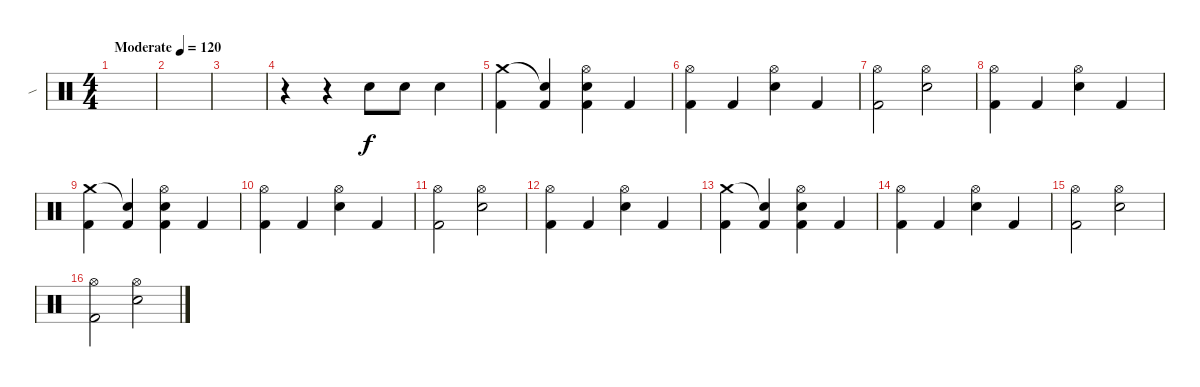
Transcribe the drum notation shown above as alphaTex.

\track ("\\" "\\") {instrument percussion}
\staff {score}
\articulation defaults
\ts (4 4)
\tempo (120 "Moderate")
\clef neutral
\ks c
|
|
|
r.4 r.4 "Electric Snare (hit)".8 "Electric Snare (hit)".8 "Electric Snare (hit)".4 |
("Crash medium (hit)" "Kick (hit) 2").4 ("Snare (hit)"{t} "Kick (hit) 2").4 ("Hi-Hat (open)" "Electric Snare (hit)" "Kick (hit) 2").4 "Kick (hit) 2".4 |
("Hi-Hat (open)" "Kick (hit) 2").4 "Kick (hit) 2".4 ("Hi-Hat (open)" "Electric Snare (hit)").4 "Kick (hit) 2".4 |
("Hi-Hat (open)" "Kick (hit) 2").2 ("Hi-Hat (open)" "Electric Snare (hit)").2 |
("Hi-Hat (open)" "Kick (hit) 2").4 "Kick (hit) 2".4 ("Hi-Hat (open)" "Electric Snare (hit)").4 "Kick (hit) 2".4 |
("Crash medium (hit)" "Kick (hit) 2").4 ("Snare (hit)"{t} "Kick (hit) 2").4 ("Hi-Hat (open)" "Electric Snare (hit)" "Kick (hit) 2").4 "Kick (hit) 2".4 |
("Hi-Hat (open)" "Kick (hit) 2").4 "Kick (hit) 2".4 ("Hi-Hat (open)" "Electric Snare (hit)").4 "Kick (hit) 2".4 |
("Hi-Hat (open)" "Kick (hit) 2").2 ("Hi-Hat (open)" "Electric Snare (hit)").2 |
("Hi-Hat (open)" "Kick (hit) 2").4 "Kick (hit) 2".4 ("Hi-Hat (open)" "Electric Snare (hit)").4 "Kick (hit) 2".4 |
("Crash medium (hit)" "Kick (hit) 2").4 ("Snare (hit)"{t} "Kick (hit) 2").4 ("Hi-Hat (open)" "Electric Snare (hit)" "Kick (hit) 2").4 "Kick (hit) 2".4 |
("Hi-Hat (open)" "Kick (hit) 2").4 "Kick (hit) 2".4 ("Hi-Hat (open)" "Electric Snare (hit)").4 "Kick (hit) 2".4 |
("Hi-Hat (open)" "Kick (hit) 2").2 ("Hi-Hat (open)" "Electric Snare (hit)").2 |
("Hi-Hat (open)" "Kick (hit) 2").2 ("Hi-Hat (open)" "Electric Snare (hit)").2
